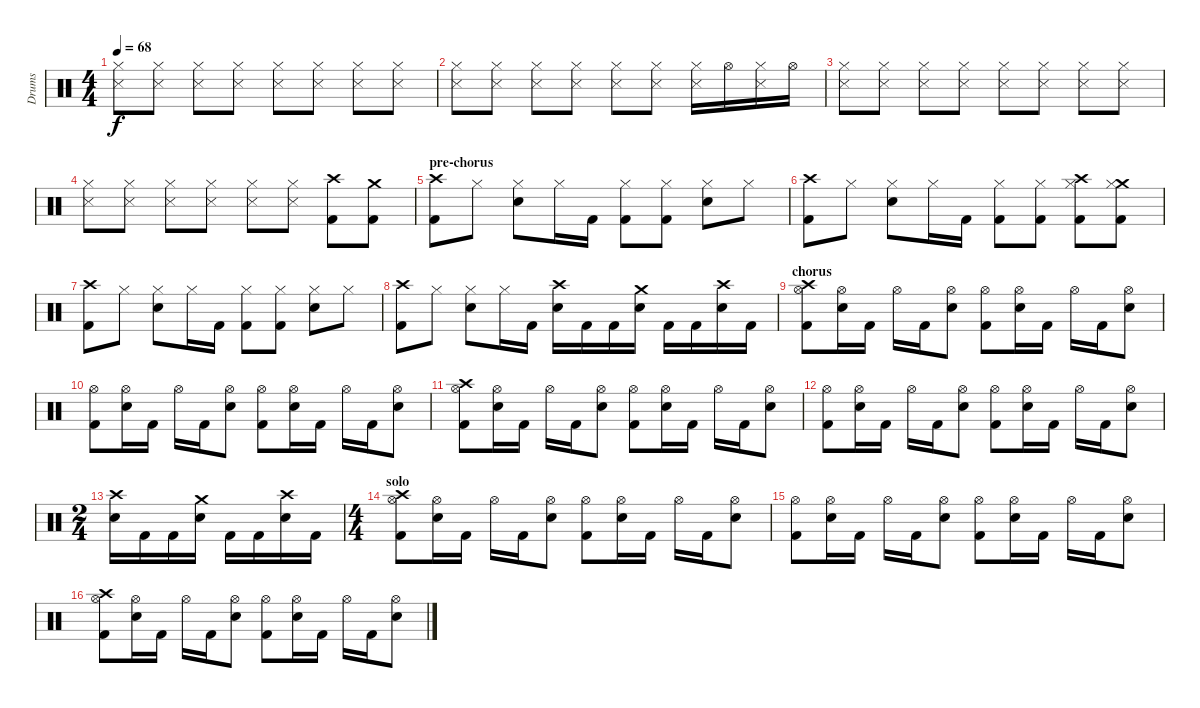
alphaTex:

\track ("Drums" "Drums") {instrument percussion}
\staff {score}
\articulation defaults
\ts (4 4)
\tempo 68
\clef neutral
\ks c
("Snare (side stick) 3" "Hi-Hat (closed)").8{dy f} ("Snare (side stick) 3" "Hi-Hat (closed)").8 ("Snare (side stick) 3" "Hi-Hat (closed)").8 ("Snare (side stick) 3" "Hi-Hat (closed)").8 ("Snare (side stick) 3" "Hi-Hat (closed)").8 ("Snare (side stick) 3" "Hi-Hat (closed)").8 ("Snare (side stick) 3" "Hi-Hat (closed)").8 ("Snare (side stick) 3" "Hi-Hat (closed)").8 |
("Snare (side stick) 3" "Hi-Hat (closed)").8 ("Snare (side stick) 3" "Hi-Hat (closed)").8 ("Snare (side stick) 3" "Hi-Hat (closed)").8 ("Snare (side stick) 3" "Hi-Hat (closed)").8 ("Snare (side stick) 3" "Hi-Hat (closed)").8 ("Snare (side stick) 3" "Hi-Hat (closed)").8 ("Snare (side stick) 3" "Hi-Hat (closed)").16 "Hi-Hat (open)".16 ("Snare (side stick) 3" "Hi-Hat (closed)").16 "Hi-Hat (open)".16 |
("Snare (side stick) 3" "Hi-Hat (closed)").8 ("Snare (side stick) 3" "Hi-Hat (closed)").8 ("Snare (side stick) 3" "Hi-Hat (closed)").8 ("Snare (side stick) 3" "Hi-Hat (closed)").8 ("Snare (side stick) 3" "Hi-Hat (closed)").8 ("Snare (side stick) 3" "Hi-Hat (closed)").8 ("Snare (side stick) 3" "Hi-Hat (closed)").8 ("Snare (side stick) 3" "Hi-Hat (closed)").8 |
("Snare (side stick) 3" "Hi-Hat (closed)").8 ("Snare (side stick) 3" "Hi-Hat (closed)").8 ("Snare (side stick) 3" "Hi-Hat (closed)").8 ("Snare (side stick) 3" "Hi-Hat (closed)").8 ("Snare (side stick) 3" "Hi-Hat (closed)").8 ("Snare (side stick) 3" "Hi-Hat (closed)").8 ("Crash high (hit)" "Kick (hit) 2").8 ("Crash medium (hit)" "Kick (hit) 2").8 |
\section ("" "pre-chorus")
("Crash high (hit)" "Kick (hit) 2").8 "Hi-Hat (closed)".8 ("Hi-Hat (closed)" "Snare (hit) 2").8 "Hi-Hat (closed)".16 "Kick (hit) 2".16 ("Hi-Hat (closed)" "Kick (hit) 2").8 ("Hi-Hat (closed)" "Kick (hit) 2").8 ("Hi-Hat (closed)" "Snare (hit) 2").8 "Hi-Hat (closed)".8 |
("Crash high (hit)" "Kick (hit) 2").8 "Hi-Hat (closed)".8 ("Hi-Hat (closed)" "Snare (hit) 2").8 "Hi-Hat (closed)".16 "Kick (hit) 2".16 ("Hi-Hat (closed)" "Kick (hit) 2").8 ("Hi-Hat (closed)" "Kick (hit) 2").8 ("Crash high (hit)" "Hi-Hat (closed)" "Kick (hit) 2").8 ("Crash medium (hit)" "Hi-Hat (closed)" "Kick (hit) 2").8 |
("Crash high (hit)" "Kick (hit) 2").8 "Hi-Hat (closed)".8 ("Hi-Hat (closed)" "Snare (hit) 2").8 "Hi-Hat (closed)".16 "Kick (hit) 2".16 ("Hi-Hat (closed)" "Kick (hit) 2").8 ("Hi-Hat (closed)" "Kick (hit) 2").8 ("Hi-Hat (closed)" "Snare (hit) 2").8 "Hi-Hat (closed)".8 |
("Crash high (hit)" "Kick (hit) 2").8 "Hi-Hat (closed)".8 ("Hi-Hat (closed)" "Snare (hit) 2").8 "Hi-Hat (closed)".16 "Kick (hit) 2".16 ("Crash high (hit)" "Snare (hit) 2").16 "Kick (hit) 2".16 "Kick (hit) 2".16 ("Crash medium (hit)" "Snare (hit) 2").16 "Kick (hit) 2".16 "Kick (hit) 2".16 ("Crash high (hit)" "Snare (hit) 2").16 "Kick (hit) 2".16 |
\section ("" "chorus")
("Crash high (hit)" "Hi-Hat (open)" "Kick (hit) 2").8 ("Hi-Hat (open)" "Snare (hit) 2").16 "Kick (hit) 2".16 "Hi-Hat (open)".16 "Kick (hit) 2".16 ("Hi-Hat (open)" "Snare (hit) 2").8 ("Hi-Hat (open)" "Kick (hit) 2").8 ("Hi-Hat (open)" "Snare (hit) 2").16 "Kick (hit) 2".16 "Hi-Hat (open)".16 "Kick (hit) 2".16 ("Hi-Hat (open)" "Snare (hit) 2").8 |
("Hi-Hat (open)" "Kick (hit) 2").8 ("Hi-Hat (open)" "Snare (hit) 2").16 "Kick (hit) 2".16 "Hi-Hat (open)".16 "Kick (hit) 2".16 ("Hi-Hat (open)" "Snare (hit) 2").8 ("Hi-Hat (open)" "Kick (hit) 2").8 ("Hi-Hat (open)" "Snare (hit) 2").16 "Kick (hit) 2".16 "Hi-Hat (open)".16 "Kick (hit) 2".16 ("Hi-Hat (open)" "Snare (hit) 2").8 |
("Crash high (hit)" "Hi-Hat (open)" "Kick (hit) 2").8 ("Hi-Hat (open)" "Snare (hit) 2").16 "Kick (hit) 2".16 "Hi-Hat (open)".16 "Kick (hit) 2".16 ("Hi-Hat (open)" "Snare (hit) 2").8 ("Hi-Hat (open)" "Kick (hit) 2").8 ("Hi-Hat (open)" "Snare (hit) 2").16 "Kick (hit) 2".16 "Hi-Hat (open)".16 "Kick (hit) 2".16 ("Hi-Hat (open)" "Snare (hit) 2").8 |
("Hi-Hat (open)" "Kick (hit) 2").8 ("Hi-Hat (open)" "Snare (hit) 2").16 "Kick (hit) 2".16 "Hi-Hat (open)".16 "Kick (hit) 2".16 ("Hi-Hat (open)" "Snare (hit) 2").8 ("Hi-Hat (open)" "Kick (hit) 2").8 ("Hi-Hat (open)" "Snare (hit) 2").16 "Kick (hit) 2".16 "Hi-Hat (open)".16 "Kick (hit) 2".16 ("Hi-Hat (open)" "Snare (hit) 2").8 |
\ts (2 4)
("Crash high (hit)" "Snare (hit) 2").16 "Kick (hit) 2".16 "Kick (hit) 2".16 ("Crash medium (hit)" "Snare (hit) 2").16 "Kick (hit) 2".16 "Kick (hit) 2".16 ("Crash high (hit)" "Snare (hit) 2").16 "Kick (hit) 2".16 |
\ts (4 4)
\section ("" "solo")
("Crash high (hit)" "Hi-Hat (open)" "Kick (hit) 2").8 ("Hi-Hat (open)" "Snare (hit) 2").16 "Kick (hit) 2".16 "Hi-Hat (open)".16 "Kick (hit) 2".16 ("Hi-Hat (open)" "Snare (hit) 2").8 ("Hi-Hat (open)" "Kick (hit) 2").8 ("Hi-Hat (open)" "Snare (hit) 2").16 "Kick (hit) 2".16 "Hi-Hat (open)".16 "Kick (hit) 2".16 ("Hi-Hat (open)" "Snare (hit) 2").8 |
("Hi-Hat (open)" "Kick (hit) 2").8 ("Hi-Hat (open)" "Snare (hit) 2").16 "Kick (hit) 2".16 "Hi-Hat (open)".16 "Kick (hit) 2".16 ("Hi-Hat (open)" "Snare (hit) 2").8 ("Hi-Hat (open)" "Kick (hit) 2").8 ("Hi-Hat (open)" "Snare (hit) 2").16 "Kick (hit) 2".16 "Hi-Hat (open)".16 "Kick (hit) 2".16 ("Hi-Hat (open)" "Snare (hit) 2").8 |
("Crash high (hit)" "Hi-Hat (open)" "Kick (hit) 2").8 ("Hi-Hat (open)" "Snare (hit) 2").16 "Kick (hit) 2".16 "Hi-Hat (open)".16 "Kick (hit) 2".16 ("Hi-Hat (open)" "Snare (hit) 2").8 ("Hi-Hat (open)" "Kick (hit) 2").8 ("Hi-Hat (open)" "Snare (hit) 2").16 "Kick (hit) 2".16 "Hi-Hat (open)".16 "Kick (hit) 2".16 ("Hi-Hat (open)" "Snare (hit) 2").8
